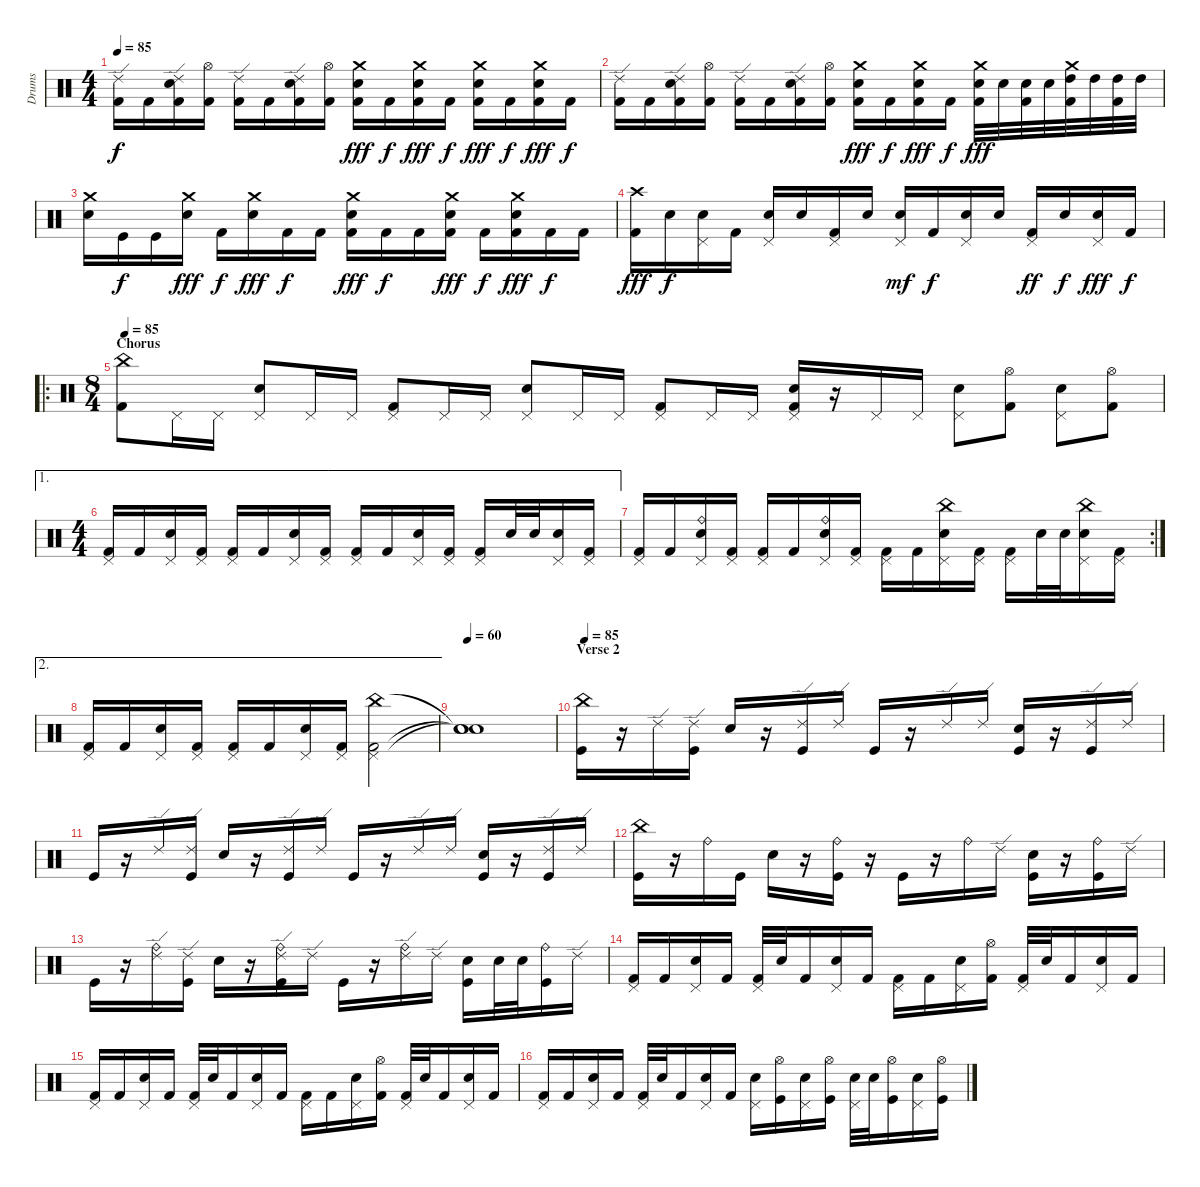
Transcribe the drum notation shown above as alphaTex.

\track ("Drums" "Drums") {instrument percussion}
\staff {score}
\articulation defaults
\ts (4 4)
\tempo 85
\clef neutral
\ks c
("Ride (edge) 2" "Kick (hit) 2").16{dy f} "Kick (hit) 2".16 ("Ride (edge) 2" "Electric Snare (hit)" "Kick (hit) 2").16 ("Hi-Hat (open)" "Kick (hit) 2").16 ("Ride (edge) 2" "Kick (hit) 2").16 "Kick (hit) 2".16 ("Ride (edge) 2" "Electric Snare (hit)" "Kick (hit) 2").16 ("Hi-Hat (open)" "Kick (hit) 2").16 ("Crash medium (hit)" "Electric Snare (hit)" "Kick (hit) 2").16{dy fff} "Kick (hit) 2".16{dy f} ("Crash medium (hit)" "Electric Snare (hit)" "Kick (hit) 2").16{dy fff} "Kick (hit) 2".16{dy f} ("Crash medium (hit)" "Electric Snare (hit)" "Kick (hit) 2").16{dy fff} "Kick (hit) 2".16{dy f} ("Crash medium (hit)" "Electric Snare (hit)" "Kick (hit) 2").16{dy fff} "Kick (hit) 2".16{dy f} |
("Ride (edge) 2" "Kick (hit) 2").16 "Kick (hit) 2".16 ("Ride (edge) 2" "Electric Snare (hit)" "Kick (hit) 2").16 ("Hi-Hat (open)" "Kick (hit) 2").16 ("Ride (edge) 2" "Kick (hit) 2").16 "Kick (hit) 2".16 ("Ride (edge) 2" "Electric Snare (hit)" "Kick (hit) 2").16 ("Hi-Hat (open)" "Kick (hit) 2").16 ("Crash medium (hit)" "Electric Snare (hit)" "Kick (hit) 2").16{dy fff} "Kick (hit) 2".16{dy f} ("Crash medium (hit)" "Electric Snare (hit)" "Kick (hit) 2").16{dy fff} "Kick (hit) 2".16{dy f} ("Crash medium (hit)" "Electric Snare (hit)" "Kick (hit) 2").32{dy fff} "Electric Snare (hit)".32 ("Electric Snare (hit)" "Kick (hit) 2").32 "Electric Snare (hit)".32 ("Crash medium (hit)" "High Tom (hit)" "Kick (hit) 2").32 "High Tom (hit)".32 ("High Tom (hit)" "Kick (hit) 2").32 "High Tom (hit)".32 |
("Crash medium (hit)" "Electric Snare (hit)").16 "Kick (hit)".16{dy f} "Kick (hit)".16 ("Crash medium (hit)" "Electric Snare (hit)").16{dy fff} "Kick (hit) 2".16{dy f} ("Crash medium (hit)" "Electric Snare (hit)").16{dy fff} "Kick (hit) 2".16{dy f} "Kick (hit) 2".16 ("Crash medium (hit)" "Electric Snare (hit)" "Kick (hit) 2").16{dy fff} "Kick (hit) 2".16{dy f} "Kick (hit) 2".16 ("Crash medium (hit)" "Electric Snare (hit)" "Kick (hit) 2").16{dy fff} "Kick (hit) 2".16{dy f} ("Crash medium (hit)" "Electric Snare (hit)" "Kick (hit) 2").16{dy fff} "Kick (hit) 2".16{dy f} "Kick (hit) 2".16 |
("Crash high (hit)" "Kick (hit) 2").16{dy fff} "Electric Snare (hit)".16{dy f} ("Pedal Hi-Hat (hit)" "Electric Snare (hit)").16 "Kick (hit) 2".16 ("Pedal Hi-Hat (hit)" "Electric Snare (hit)").16 "Electric Snare (hit)".16 ("Pedal Hi-Hat (hit)" "Kick (hit) 2").16 "Electric Snare (hit)".16 ("Pedal Hi-Hat (hit)" "Electric Snare (hit)").16{dy mf} "Kick (hit) 2".16{dy f} ("Pedal Hi-Hat (hit)" "Electric Snare (hit)").16 "Electric Snare (hit)".16 ("Pedal Hi-Hat (hit)" "Kick (hit) 2").16{dy ff} "Electric Snare (hit)".16{dy f} ("Pedal Hi-Hat (hit)" "Electric Snare (hit)").16{dy fff} "Kick (hit) 2".16{dy f} |
\ro
\ts (8 4)
\section ("" "Chorus")
\tempo 85
("China (hit)" "Kick (hit) 2").8 "Pedal Hi-Hat (hit)".16 "Pedal Hi-Hat (hit)".16 ("Pedal Hi-Hat (hit)" "Electric Snare (hit)").8 "Pedal Hi-Hat (hit)".16 "Pedal Hi-Hat (hit)".16 ("Pedal Hi-Hat (hit)" "Kick (hit) 2").8 "Pedal Hi-Hat (hit)".16 "Pedal Hi-Hat (hit)".16 ("Pedal Hi-Hat (hit)" "Electric Snare (hit)").8 "Pedal Hi-Hat (hit)".16 "Pedal Hi-Hat (hit)".16 ("Pedal Hi-Hat (hit)" "Kick (hit) 2").8 "Pedal Hi-Hat (hit)".16 "Pedal Hi-Hat (hit)".16 ("Pedal Hi-Hat (hit)" "Electric Snare (hit)" "Kick (hit) 2").16 r.16 "Pedal Hi-Hat (hit)".16 "Pedal Hi-Hat (hit)".16 ("Pedal Hi-Hat (hit)" "Electric Snare (hit)").8 ("Hi-Hat (open)" "Kick (hit) 2").8 ("Pedal Hi-Hat (hit)" "Electric Snare (hit)").8 ("Hi-Hat (open)" "Kick (hit) 2").8 |
\ae 1
\ts (4 4)
("Pedal Hi-Hat (hit)" "Kick (hit) 2").16 "Kick (hit) 2".16 ("Pedal Hi-Hat (hit)" "Electric Snare (hit)").16 ("Pedal Hi-Hat (hit)" "Kick (hit) 2").16 ("Pedal Hi-Hat (hit)" "Kick (hit) 2").16 "Kick (hit) 2".16 ("Pedal Hi-Hat (hit)" "Electric Snare (hit)").16 ("Pedal Hi-Hat (hit)" "Kick (hit) 2").16 ("Pedal Hi-Hat (hit)" "Kick (hit) 2").16 "Kick (hit) 2".16 ("Pedal Hi-Hat (hit)" "Electric Snare (hit)").16 ("Pedal Hi-Hat (hit)" "Kick (hit) 2").16 ("Pedal Hi-Hat (hit)" "Kick (hit) 2").16 "Electric Snare (hit)".32 "Electric Snare (hit)".32 ("Pedal Hi-Hat (hit)" "Electric Snare (hit)").16 ("Pedal Hi-Hat (hit)" "Kick (hit) 2").16 |
\rc 2
("Pedal Hi-Hat (hit)" "Kick (hit) 2").16 "Kick (hit) 2".16 ("Ride (bell)" "Pedal Hi-Hat (hit)" "Electric Snare (hit)").16 ("Pedal Hi-Hat (hit)" "Kick (hit) 2").16 ("Pedal Hi-Hat (hit)" "Kick (hit) 2").16 "Kick (hit) 2".16 ("Ride (bell)" "Pedal Hi-Hat (hit)" "Electric Snare (hit)").16 ("Pedal Hi-Hat (hit)" "Kick (hit) 2").16 ("Pedal Hi-Hat (hit)" "Kick (hit) 2").16 "Kick (hit) 2".16 ("China (hit)" "Pedal Hi-Hat (hit)" "Electric Snare (hit)").16 ("Pedal Hi-Hat (hit)" "Kick (hit) 2").16 ("Pedal Hi-Hat (hit)" "Kick (hit) 2").16 "Electric Snare (hit)".32 "Electric Snare (hit)".32 ("China (hit)" "Pedal Hi-Hat (hit)" "Electric Snare (hit)").16 ("Pedal Hi-Hat (hit)" "Kick (hit) 2").16 |
\ae 2
("Pedal Hi-Hat (hit)" "Kick (hit) 2").16 "Kick (hit) 2".16 ("Pedal Hi-Hat (hit)" "Electric Snare (hit)").16 ("Pedal Hi-Hat (hit)" "Kick (hit) 2").16 ("Pedal Hi-Hat (hit)" "Kick (hit) 2").16 "Kick (hit) 2".16 ("Pedal Hi-Hat (hit)" "Electric Snare (hit)").16 ("Pedal Hi-Hat (hit)" "Kick (hit) 2").16 ("China (hit)" "Pedal Hi-Hat (hit)" "Kick (hit) 2").2{volume 16} |
\tempo 60
("Snare (hit)"{t} "Snare (hit)"{t} "Snare (hit)"{t}).1 |
\section ("" "Verse 2")
\tempo 85
("China (hit)" "Kick (hit)").16{volume 13} r.16 "Ride (edge) 2".16 ("Ride (edge) 2" "Kick (hit)").16 "Electric Snare (hit)".16 r.16 ("Ride (edge) 2" "Kick (hit)").16 "Ride (edge) 2".16 "Kick (hit)".16 r.16 "Ride (edge) 2".16 "Ride (edge) 2".16 ("Electric Snare (hit)" "Kick (hit)").16 r.16 ("Ride (edge) 2" "Kick (hit)").16 "Ride (edge) 2".16 |
"Kick (hit)".16 r.16 "Ride (edge) 2".16 ("Ride (edge) 2" "Kick (hit)").16 "Electric Snare (hit)".16 r.16 ("Ride (edge) 2" "Kick (hit)").16 "Ride (edge) 2".16 "Kick (hit)".16 r.16 "Ride (edge) 2".16 "Ride (edge) 2".16 ("Electric Snare (hit)" "Kick (hit)").16 r.16 ("Ride (edge) 2" "Kick (hit)").16 "Ride (edge) 2".16 |
("China (hit)" "Kick (hit)").16 r.16 "Ride (bell)".16 "Kick (hit)".16 "Electric Snare (hit)".16 r.16 ("Ride (bell)" "Kick (hit)").16 r.16 "Kick (hit)".16 r.16 "Ride (bell)".16 "Ride (edge) 2".16 ("Electric Snare (hit)" "Kick (hit)").16 r.16 ("Ride (bell)" "Kick (hit)").16 "Ride (edge) 2".16 |
"Kick (hit)".16 r.16 ("Ride (bell)" "Ride (edge) 2").16 ("Ride (edge) 2" "Kick (hit)").16 "Electric Snare (hit)".16 r.16 ("Ride (bell)" "Ride (edge) 2" "Kick (hit)").16 "Ride (edge) 2".16 "Kick (hit)".16 r.16 ("Ride (bell)" "Ride (edge) 2").16 "Ride (edge) 2".16 ("Electric Snare (hit)" "Kick (hit)").16 "Electric Snare (hit)".32 "Electric Snare (hit)".32 ("Ride (bell)" "Kick (hit)").16 "Ride (edge) 2".16 |
("Pedal Hi-Hat (hit)" "Kick (hit) 2").16 "Kick (hit) 2".16 ("Pedal Hi-Hat (hit)" "Electric Snare (hit)").16 "Kick (hit) 2".16 ("Pedal Hi-Hat (hit)" "Kick (hit) 2").32 "Electric Snare (hit)".32 "Kick (hit) 2".16 ("Pedal Hi-Hat (hit)" "Electric Snare (hit)").16 "Kick (hit) 2".16 ("Pedal Hi-Hat (hit)" "Kick (hit) 2").16 "Kick (hit) 2".16 ("Pedal Hi-Hat (hit)" "Electric Snare (hit)").16 ("Hi-Hat (open)" "Kick (hit) 2").16 ("Pedal Hi-Hat (hit)" "Kick (hit) 2").32 "Electric Snare (hit)".32 "Kick (hit) 2".16 ("Pedal Hi-Hat (hit)" "Electric Snare (hit)").16 "Kick (hit) 2".16 |
("Pedal Hi-Hat (hit)" "Kick (hit) 2").16 "Kick (hit) 2".16 ("Pedal Hi-Hat (hit)" "Electric Snare (hit)").16 "Kick (hit) 2".16 ("Pedal Hi-Hat (hit)" "Kick (hit) 2").32 "Electric Snare (hit)".32 "Kick (hit) 2".16 ("Pedal Hi-Hat (hit)" "Electric Snare (hit)").16 "Kick (hit) 2".16 ("Pedal Hi-Hat (hit)" "Kick (hit) 2").16 "Kick (hit) 2".16 ("Pedal Hi-Hat (hit)" "Electric Snare (hit)").16 ("Hi-Hat (open)" "Kick (hit) 2").16 ("Pedal Hi-Hat (hit)" "Kick (hit) 2").32 "Electric Snare (hit)".32 "Kick (hit) 2".16 ("Pedal Hi-Hat (hit)" "Electric Snare (hit)").16 "Kick (hit) 2".16 |
("Pedal Hi-Hat (hit)" "Kick (hit) 2").16 "Kick (hit) 2".16 ("Pedal Hi-Hat (hit)" "Electric Snare (hit)").16 "Kick (hit) 2".16 ("Pedal Hi-Hat (hit)" "Kick (hit) 2").32 "Electric Snare (hit)".32 "Kick (hit) 2".16 ("Pedal Hi-Hat (hit)" "Electric Snare (hit)").16 "Kick (hit) 2".16 ("Pedal Hi-Hat (hit)" "Electric Snare (hit)").16 ("Hi-Hat (open)" "Kick (hit)").16 ("Pedal Hi-Hat (hit)" "Electric Snare (hit)").16 ("Hi-Hat (open)" "Kick (hit)").16 ("Pedal Hi-Hat (hit)" "Electric Snare (hit)").32 "Electric Snare (hit)".32 ("Hi-Hat (open)" "Kick (hit)").16 ("Pedal Hi-Hat (hit)" "Electric Snare (hit)").16 ("Hi-Hat (open)" "Kick (hit)").16
